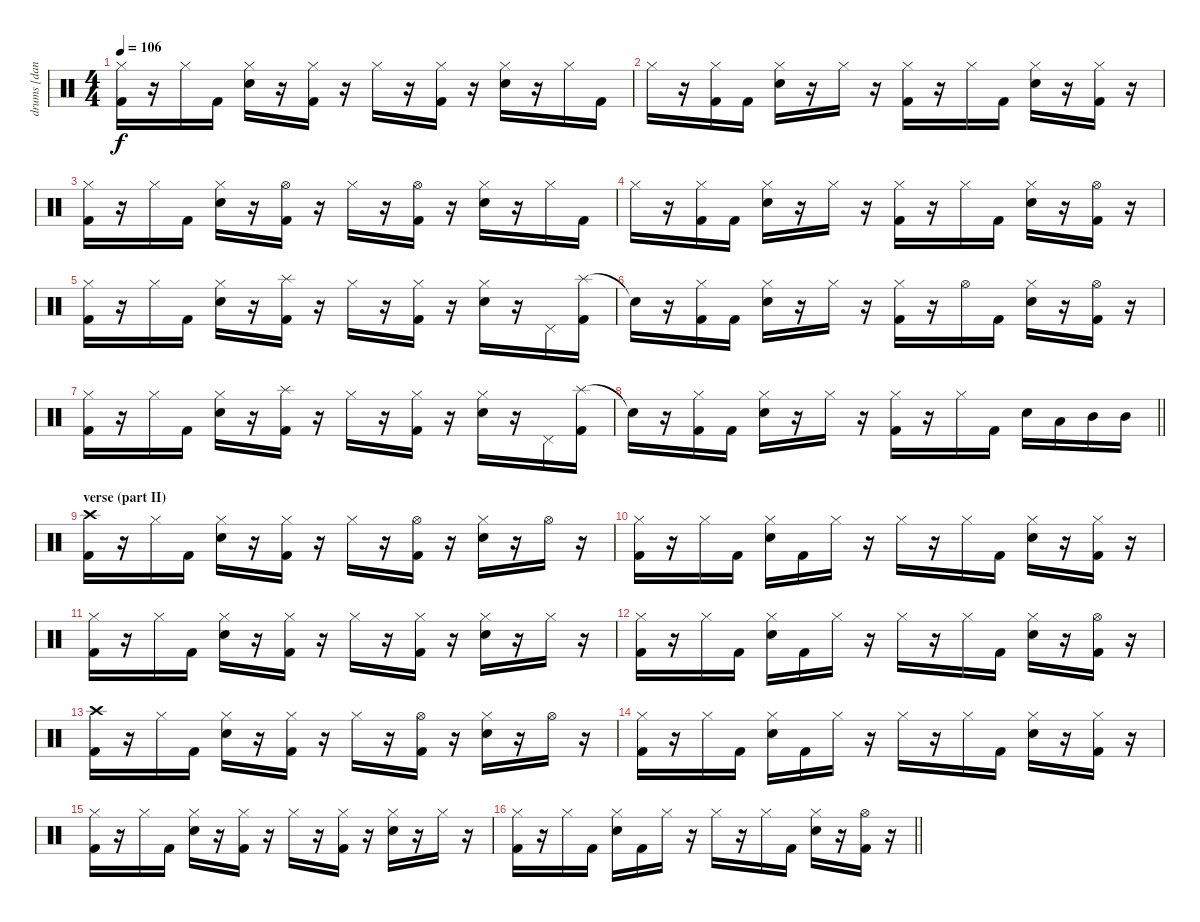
\track ("drums [danny carey]" "drums [dan") {instrument percussion}
\staff {score}
\articulation defaults
\ts (4 4)
\tempo 106
\clef neutral
\ks c
("Hi-Hat (closed)" "Kick (hit) 2").16{dy f} r.16 "Hi-Hat (closed)".16 "Kick (hit) 2".16 ("Hi-Hat (closed)" "Electric Snare (hit)").16 r.16 ("Hi-Hat (closed)" "Kick (hit) 2").16 r.16 "Hi-Hat (closed)".16 r.16 ("Hi-Hat (closed)" "Kick (hit) 2").16 r.16 ("Hi-Hat (closed)" "Electric Snare (hit)").16 r.16 "Hi-Hat (closed)".16 "Kick (hit) 2".16 |
"Hi-Hat (closed)".16 r.16 ("Hi-Hat (closed)" "Kick (hit) 2").16 "Kick (hit) 2".16 ("Hi-Hat (closed)" "Electric Snare (hit)").16 r.16 "Hi-Hat (closed)".16 r.16 ("Hi-Hat (closed)" "Kick (hit) 2").16 r.16 "Hi-Hat (closed)".16 "Kick (hit) 2".16 ("Hi-Hat (closed)" "Electric Snare (hit)").16 r.16 ("Hi-Hat (closed)" "Kick (hit) 2").16 r.16 |
("Hi-Hat (closed)" "Kick (hit) 2").16 r.16 "Hi-Hat (closed)".16 "Kick (hit) 2".16 ("Hi-Hat (closed)" "Electric Snare (hit)").16 r.16 ("Hi-Hat (open)" "Kick (hit) 2").16 r.16 "Hi-Hat (closed)".16 r.16 ("Hi-Hat (open)" "Kick (hit) 2").16 r.16 ("Hi-Hat (closed)" "Electric Snare (hit)").16 r.16 "Hi-Hat (closed)".16 "Kick (hit) 2".16 |
"Hi-Hat (closed)".16 r.16 ("Hi-Hat (closed)" "Kick (hit) 2").16 "Kick (hit) 2".16 ("Hi-Hat (closed)" "Electric Snare (hit)").16 r.16 "Hi-Hat (closed)".16 r.16 ("Hi-Hat (closed)" "Kick (hit) 2").16 r.16 "Hi-Hat (closed)".16 "Kick (hit) 2".16 ("Hi-Hat (closed)" "Electric Snare (hit)").16 r.16 ("Hi-Hat (open)" "Kick (hit) 2").16 r.16 |
("Hi-Hat (closed)" "Kick (hit) 2").16 r.16 "Hi-Hat (closed)".16 "Kick (hit) 2".16 ("Hi-Hat (closed)" "Electric Snare (hit)").16 r.16 ("Splash (hit)" "Kick (hit) 2").16 r.16 "Hi-Hat (closed)".16 r.16 ("Hi-Hat (closed)" "Kick (hit) 2").16 r.16 ("Hi-Hat (closed)" "Electric Snare (hit)").16 r.16 "Pedal Hi-Hat (hit)".16 ("Splash (hit)" "Kick (hit) 2").16 |
"Snare (hit)"{t}.16 r.16 ("Hi-Hat (closed)" "Kick (hit) 2").16 "Kick (hit) 2".16 ("Hi-Hat (closed)" "Electric Snare (hit)").16 r.16 "Hi-Hat (closed)".16 r.16 ("Hi-Hat (closed)" "Kick (hit) 2").16 r.16 "Hi-Hat (open)".16 "Kick (hit) 2".16 ("Hi-Hat (closed)" "Electric Snare (hit)").16 r.16 ("Hi-Hat (open)" "Kick (hit) 2").16 r.16 |
("Hi-Hat (closed)" "Kick (hit) 2").16 r.16 "Hi-Hat (closed)".16 "Kick (hit) 2".16 ("Hi-Hat (closed)" "Electric Snare (hit)").16 r.16 ("Splash (hit)" "Kick (hit) 2").16 r.16 "Hi-Hat (closed)".16 r.16 ("Hi-Hat (closed)" "Kick (hit) 2").16 r.16 ("Hi-Hat (closed)" "Electric Snare (hit)").16 r.16 "Pedal Hi-Hat (hit)".16 ("Splash (hit)" "Kick (hit) 2").16 |
\barLineRight lightlight "Snare (hit)"{t}.16
r.16 ("Hi-Hat (closed)" "Kick (hit) 2").16 "Kick (hit) 2".16 ("Hi-Hat (closed)" "Electric Snare (hit)").16 r.16 "Hi-Hat (closed)".16 r.16 ("Hi-Hat (closed)" "Kick (hit) 2").16 r.16 "Hi-Hat (closed)".16 "Kick (hit) 2".16 "Electric Snare (hit)".16 "Low Tom (hit)".16 "Mid Tom (hit)".16 "Mid Tom (hit)".16 |
\section ("" "verse (part II)")
("Crash high (hit)" "Kick (hit) 2").16 r.16 "Hi-Hat (closed)".16 "Kick (hit) 2".16 ("Hi-Hat (closed)" "Electric Snare (hit)").16 r.16 ("Hi-Hat (closed)" "Kick (hit) 2").16 r.16 "Hi-Hat (closed)".16 r.16 ("Hi-Hat (open)" "Kick (hit) 2").16 r.16 ("Hi-Hat (closed)" "Electric Snare (hit)").16 r.16 "Hi-Hat (open)".16 r.16 |
("Hi-Hat (closed)" "Kick (hit) 2").16 r.16 "Hi-Hat (closed)".16 "Kick (hit) 2".16 ("Hi-Hat (closed)" "Electric Snare (hit)").16 "Kick (hit) 2".16 "Hi-Hat (closed)".16 r.16 "Hi-Hat (closed)".16 r.16 "Hi-Hat (closed)".16 "Kick (hit) 2".16 ("Hi-Hat (closed)" "Electric Snare (hit)").16 r.16 ("Hi-Hat (closed)" "Kick (hit) 2").16 r.16 |
("Hi-Hat (closed)" "Kick (hit) 2").16 r.16 "Hi-Hat (closed)".16 "Kick (hit) 2".16 ("Hi-Hat (closed)" "Electric Snare (hit)").16 r.16 ("Hi-Hat (closed)" "Kick (hit) 2").16 r.16 "Hi-Hat (closed)".16 r.16 ("Hi-Hat (closed)" "Kick (hit) 2").16 r.16 ("Hi-Hat (closed)" "Electric Snare (hit)").16 r.16 "Hi-Hat (closed)".16 r.16 |
("Hi-Hat (closed)" "Kick (hit) 2").16 r.16 "Hi-Hat (closed)".16 "Kick (hit) 2".16 ("Hi-Hat (closed)" "Electric Snare (hit)").16 "Kick (hit) 2".16 "Hi-Hat (closed)".16 r.16 "Hi-Hat (closed)".16 r.16 "Hi-Hat (closed)".16 "Kick (hit) 2".16 ("Hi-Hat (closed)" "Electric Snare (hit)").16 r.16 ("Hi-Hat (open)" "Kick (hit) 2").16 r.16 |
("Crash high (hit)" "Kick (hit) 2").16 r.16 "Hi-Hat (closed)".16 "Kick (hit) 2".16 ("Hi-Hat (closed)" "Electric Snare (hit)").16 r.16 ("Hi-Hat (closed)" "Kick (hit) 2").16 r.16 "Hi-Hat (closed)".16 r.16 ("Hi-Hat (open)" "Kick (hit) 2").16 r.16 ("Hi-Hat (closed)" "Electric Snare (hit)").16 r.16 "Hi-Hat (open)".16 r.16 |
("Hi-Hat (closed)" "Kick (hit) 2").16 r.16 "Hi-Hat (closed)".16 "Kick (hit) 2".16 ("Hi-Hat (closed)" "Electric Snare (hit)").16 "Kick (hit) 2".16 "Hi-Hat (closed)".16 r.16 "Hi-Hat (closed)".16 r.16 "Hi-Hat (closed)".16 "Kick (hit) 2".16 ("Hi-Hat (closed)" "Electric Snare (hit)").16 r.16 ("Hi-Hat (closed)" "Kick (hit) 2").16 r.16 |
("Hi-Hat (closed)" "Kick (hit) 2").16 r.16 "Hi-Hat (closed)".16 "Kick (hit) 2".16 ("Hi-Hat (closed)" "Electric Snare (hit)").16 r.16 ("Hi-Hat (closed)" "Kick (hit) 2").16 r.16 "Hi-Hat (closed)".16 r.16 ("Hi-Hat (closed)" "Kick (hit) 2").16 r.16 ("Hi-Hat (closed)" "Electric Snare (hit)").16 r.16 "Hi-Hat (closed)".16 r.16 |
\barLineRight lightlight
("Hi-Hat (closed)" "Kick (hit) 2").16 r.16 "Hi-Hat (closed)".16 "Kick (hit) 2".16 ("Hi-Hat (closed)" "Electric Snare (hit)").16 "Kick (hit) 2".16 "Hi-Hat (closed)".16 r.16 "Hi-Hat (closed)".16 r.16 "Hi-Hat (closed)".16 "Kick (hit) 2".16 ("Hi-Hat (closed)" "Electric Snare (hit)").16 r.16 ("Hi-Hat (open)" "Kick (hit) 2").16 r.16
